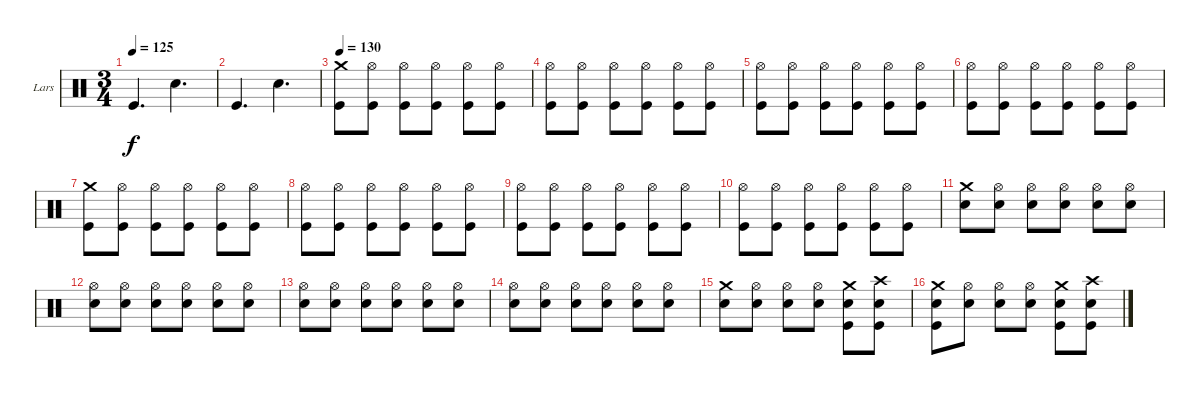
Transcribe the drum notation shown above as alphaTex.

\bracketExtendMode groupsimilarinstruments
\firstSystemTrackNameOrientation horizontal
\otherSystemsTrackNameOrientation horizontal
\track ("Drumkit" "Lars") {instrument percussion}
\staff {score}
\articulation defaults
\ts (3 4)
\tempo 125
\clef neutral
\ks c "Kick (hit)".4{d dy f} "Snare (hit) 2".4{d}
|
"Kick (hit)".4{d} "Snare (hit) 2".4{d} |
\tempo 130
("Crash medium (hit)" "Kick (hit)").8 ("Hi-Hat (open)" "Kick (hit)").8 ("Hi-Hat (open)" "Kick (hit)").8 ("Hi-Hat (open)" "Kick (hit)").8 ("Hi-Hat (open)" "Kick (hit)").8 ("Hi-Hat (open)" "Kick (hit)").8 |
("Hi-Hat (open)" "Kick (hit)").8 ("Hi-Hat (open)" "Kick (hit)").8 ("Hi-Hat (open)" "Kick (hit)").8 ("Hi-Hat (open)" "Kick (hit)").8 ("Hi-Hat (open)" "Kick (hit)").8 ("Hi-Hat (open)" "Kick (hit)").8 |
("Hi-Hat (open)" "Kick (hit)").8 ("Hi-Hat (open)" "Kick (hit)").8 ("Hi-Hat (open)" "Kick (hit)").8 ("Hi-Hat (open)" "Kick (hit)").8 ("Hi-Hat (open)" "Kick (hit)").8 ("Hi-Hat (open)" "Kick (hit)").8 |
("Hi-Hat (open)" "Kick (hit)").8 ("Hi-Hat (open)" "Kick (hit)").8 ("Hi-Hat (open)" "Kick (hit)").8 ("Hi-Hat (open)" "Kick (hit)").8 ("Hi-Hat (open)" "Kick (hit)").8 ("Hi-Hat (open)" "Kick (hit)").8 |
("Crash medium (hit)" "Kick (hit)").8 ("Hi-Hat (open)" "Kick (hit)").8 ("Hi-Hat (open)" "Kick (hit)").8 ("Hi-Hat (open)" "Kick (hit)").8 ("Hi-Hat (open)" "Kick (hit)").8 ("Hi-Hat (open)" "Kick (hit)").8 |
("Hi-Hat (open)" "Kick (hit)").8 ("Hi-Hat (open)" "Kick (hit)").8 ("Hi-Hat (open)" "Kick (hit)").8 ("Hi-Hat (open)" "Kick (hit)").8 ("Hi-Hat (open)" "Kick (hit)").8 ("Hi-Hat (open)" "Kick (hit)").8 |
("Hi-Hat (open)" "Kick (hit)").8 ("Hi-Hat (open)" "Kick (hit)").8 ("Hi-Hat (open)" "Kick (hit)").8 ("Hi-Hat (open)" "Kick (hit)").8 ("Hi-Hat (open)" "Kick (hit)").8 ("Hi-Hat (open)" "Kick (hit)").8 |
("Hi-Hat (open)" "Kick (hit)").8 ("Hi-Hat (open)" "Kick (hit)").8 ("Hi-Hat (open)" "Kick (hit)").8 ("Hi-Hat (open)" "Kick (hit)").8 ("Hi-Hat (open)" "Kick (hit)").8 ("Hi-Hat (open)" "Kick (hit)").8 |
("Crash medium (hit)" "Snare (hit) 2").8 ("Hi-Hat (open)" "Snare (hit) 2").8 ("Hi-Hat (open)" "Snare (hit) 2").8 ("Hi-Hat (open)" "Snare (hit) 2").8 ("Hi-Hat (open)" "Snare (hit) 2").8 ("Hi-Hat (open)" "Snare (hit) 2").8 |
("Hi-Hat (open)" "Snare (hit) 2").8 ("Hi-Hat (open)" "Snare (hit) 2").8 ("Hi-Hat (open)" "Snare (hit) 2").8 ("Hi-Hat (open)" "Snare (hit) 2").8 ("Hi-Hat (open)" "Snare (hit) 2").8 ("Hi-Hat (open)" "Snare (hit) 2").8 |
("Hi-Hat (open)" "Snare (hit) 2").8 ("Hi-Hat (open)" "Snare (hit) 2").8 ("Hi-Hat (open)" "Snare (hit) 2").8 ("Hi-Hat (open)" "Snare (hit) 2").8 ("Hi-Hat (open)" "Snare (hit) 2").8 ("Hi-Hat (open)" "Snare (hit) 2").8 |
("Hi-Hat (open)" "Snare (hit) 2").8 ("Hi-Hat (open)" "Snare (hit) 2").8 ("Hi-Hat (open)" "Snare (hit) 2").8 ("Hi-Hat (open)" "Snare (hit) 2").8 ("Hi-Hat (open)" "Snare (hit) 2").8 ("Hi-Hat (open)" "Snare (hit) 2").8 |
("Crash medium (hit)" "Snare (hit) 2").8 ("Hi-Hat (open)" "Snare (hit) 2").8 ("Hi-Hat (open)" "Snare (hit) 2").8 ("Hi-Hat (open)" "Snare (hit) 2").8 ("Crash medium (hit)" "Snare (hit) 2" "Kick (hit)").8 ("Crash high (hit)" "Snare (hit) 2" "Kick (hit)").8 |
("Crash medium (hit)" "Snare (hit) 2" "Kick (hit)").8 ("Hi-Hat (open)" "Snare (hit) 2").8 ("Hi-Hat (open)" "Snare (hit) 2").8 ("Hi-Hat (open)" "Snare (hit) 2").8 ("Crash medium (hit)" "Snare (hit) 2" "Kick (hit)").8 ("Crash high (hit)" "Snare (hit) 2" "Kick (hit)").8
